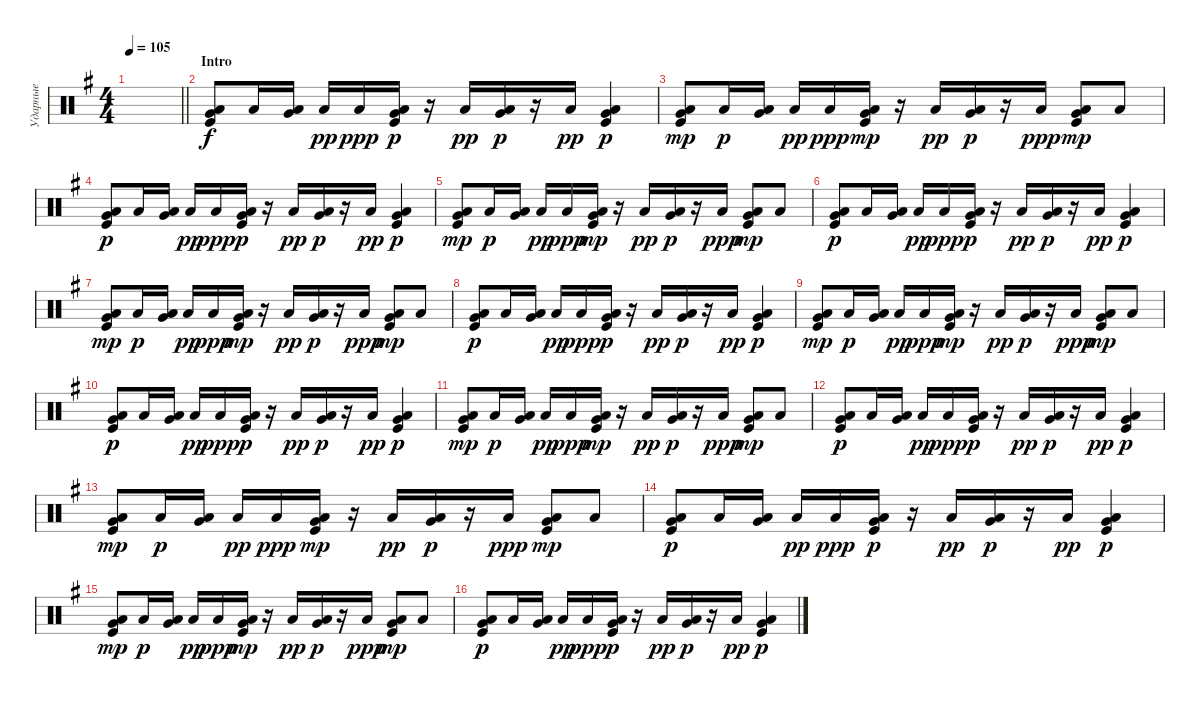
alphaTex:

\track ("Ударные" "Ударные") {instrument percussion}
\staff {score}
\articulation defaults
\ts (4 4)
\tempo 105
\clef neutral
\barLineRight lightlight
\ks eminor
|
\section ("" "Intro")
("Low Floor Tom (hit)" "Very Low Tom (hit)" "Kick (hit)").8{bd 60} "Low Floor Tom (hit)".16 ("Low Floor Tom (hit)" "Very Low Tom (hit)").16{bd 60} "Low Floor Tom (hit)".16{dy pp} "Low Floor Tom (hit)".16{dy ppp} ("Low Floor Tom (hit)" "Very Low Tom (hit)" "Kick (hit)").16{bd 60 dy p} r.16 "Low Floor Tom (hit)".16{dy pp} ("Low Floor Tom (hit)" "Very Low Tom (hit)").16{bd 60 dy p} r.16 "Low Floor Tom (hit)".16{dy pp} ("Low Floor Tom (hit)" "Very Low Tom (hit)" "Kick (hit)").4{bd 60 dy p} |
("Low Floor Tom (hit)" "Very Low Tom (hit)" "Kick (hit)").8{bd 60 dy mp} "Low Floor Tom (hit)".16{dy p} ("Low Floor Tom (hit)" "Very Low Tom (hit)").16{bd 60} "Low Floor Tom (hit)".16{dy pp} "Low Floor Tom (hit)".16{dy ppp} ("Low Floor Tom (hit)" "Very Low Tom (hit)" "Kick (hit)").16{bd 60 dy mp} r.16 "Low Floor Tom (hit)".16{dy pp} ("Low Floor Tom (hit)" "Very Low Tom (hit)").16{bd 60 dy p} r.16 "Low Floor Tom (hit)".16{dy ppp} ("Low Floor Tom (hit)" "Very Low Tom (hit)" "Kick (hit)").8{bd 60 dy mp} "Low Floor Tom (hit)".8 |
("Low Floor Tom (hit)" "Very Low Tom (hit)" "Kick (hit)").8{bd 60 dy p} "Low Floor Tom (hit)".16 ("Low Floor Tom (hit)" "Very Low Tom (hit)").16{bd 60} "Low Floor Tom (hit)".16{dy pp} "Low Floor Tom (hit)".16{dy ppp} ("Low Floor Tom (hit)" "Very Low Tom (hit)" "Kick (hit)").16{bd 60 dy p} r.16 "Low Floor Tom (hit)".16{dy pp} ("Low Floor Tom (hit)" "Very Low Tom (hit)").16{bd 60 dy p} r.16 "Low Floor Tom (hit)".16{dy pp} ("Low Floor Tom (hit)" "Very Low Tom (hit)" "Kick (hit)").4{bd 60 dy p} |
("Low Floor Tom (hit)" "Very Low Tom (hit)" "Kick (hit)").8{bd 60 dy mp} "Low Floor Tom (hit)".16{dy p} ("Low Floor Tom (hit)" "Very Low Tom (hit)").16{bd 60} "Low Floor Tom (hit)".16{dy pp} "Low Floor Tom (hit)".16{dy ppp} ("Low Floor Tom (hit)" "Very Low Tom (hit)" "Kick (hit)").16{bd 60 dy mp} r.16 "Low Floor Tom (hit)".16{dy pp} ("Low Floor Tom (hit)" "Very Low Tom (hit)").16{bd 60 dy p} r.16 "Low Floor Tom (hit)".16{dy ppp} ("Low Floor Tom (hit)" "Very Low Tom (hit)" "Kick (hit)").8{bd 60 dy mp} "Low Floor Tom (hit)".8 |
("Low Floor Tom (hit)" "Very Low Tom (hit)" "Kick (hit)").8{bd 60 dy p} "Low Floor Tom (hit)".16 ("Low Floor Tom (hit)" "Very Low Tom (hit)").16{bd 60} "Low Floor Tom (hit)".16{dy pp} "Low Floor Tom (hit)".16{dy ppp} ("Low Floor Tom (hit)" "Very Low Tom (hit)" "Kick (hit)").16{bd 60 dy p} r.16 "Low Floor Tom (hit)".16{dy pp} ("Low Floor Tom (hit)" "Very Low Tom (hit)").16{bd 60 dy p} r.16 "Low Floor Tom (hit)".16{dy pp} ("Low Floor Tom (hit)" "Very Low Tom (hit)" "Kick (hit)").4{bd 60 dy p} |
("Low Floor Tom (hit)" "Very Low Tom (hit)" "Kick (hit)").8{bd 60 dy mp} "Low Floor Tom (hit)".16{dy p} ("Low Floor Tom (hit)" "Very Low Tom (hit)").16{bd 60} "Low Floor Tom (hit)".16{dy pp} "Low Floor Tom (hit)".16{dy ppp} ("Low Floor Tom (hit)" "Very Low Tom (hit)" "Kick (hit)").16{bd 60 dy mp} r.16 "Low Floor Tom (hit)".16{dy pp} ("Low Floor Tom (hit)" "Very Low Tom (hit)").16{bd 60 dy p} r.16 "Low Floor Tom (hit)".16{dy ppp} ("Low Floor Tom (hit)" "Very Low Tom (hit)" "Kick (hit)").8{bd 60 dy mp} "Low Floor Tom (hit)".8 |
("Low Floor Tom (hit)" "Very Low Tom (hit)" "Kick (hit)").8{bd 60 dy p} "Low Floor Tom (hit)".16 ("Low Floor Tom (hit)" "Very Low Tom (hit)").16{bd 60} "Low Floor Tom (hit)".16{dy pp} "Low Floor Tom (hit)".16{dy ppp} ("Low Floor Tom (hit)" "Very Low Tom (hit)" "Kick (hit)").16{bd 60 dy p} r.16 "Low Floor Tom (hit)".16{dy pp} ("Low Floor Tom (hit)" "Very Low Tom (hit)").16{bd 60 dy p} r.16 "Low Floor Tom (hit)".16{dy pp} ("Low Floor Tom (hit)" "Very Low Tom (hit)" "Kick (hit)").4{bd 60 dy p} |
("Low Floor Tom (hit)" "Very Low Tom (hit)" "Kick (hit)").8{bd 60 dy mp} "Low Floor Tom (hit)".16{dy p} ("Low Floor Tom (hit)" "Very Low Tom (hit)").16{bd 60} "Low Floor Tom (hit)".16{dy pp} "Low Floor Tom (hit)".16{dy ppp} ("Low Floor Tom (hit)" "Very Low Tom (hit)" "Kick (hit)").16{bd 60 dy mp} r.16 "Low Floor Tom (hit)".16{dy pp} ("Low Floor Tom (hit)" "Very Low Tom (hit)").16{bd 60 dy p} r.16 "Low Floor Tom (hit)".16{dy ppp} ("Low Floor Tom (hit)" "Very Low Tom (hit)" "Kick (hit)").8{bd 60 dy mp} "Low Floor Tom (hit)".8 |
("Low Floor Tom (hit)" "Very Low Tom (hit)" "Kick (hit)").8{bd 60 dy p} "Low Floor Tom (hit)".16 ("Low Floor Tom (hit)" "Very Low Tom (hit)").16{bd 60} "Low Floor Tom (hit)".16{dy pp} "Low Floor Tom (hit)".16{dy ppp} ("Low Floor Tom (hit)" "Very Low Tom (hit)" "Kick (hit)").16{bd 60 dy p} r.16 "Low Floor Tom (hit)".16{dy pp} ("Low Floor Tom (hit)" "Very Low Tom (hit)").16{bd 60 dy p} r.16 "Low Floor Tom (hit)".16{dy pp} ("Low Floor Tom (hit)" "Very Low Tom (hit)" "Kick (hit)").4{bd 60 dy p} |
("Low Floor Tom (hit)" "Very Low Tom (hit)" "Kick (hit)").8{bd 60 dy mp} "Low Floor Tom (hit)".16{dy p} ("Low Floor Tom (hit)" "Very Low Tom (hit)").16{bd 60} "Low Floor Tom (hit)".16{dy pp} "Low Floor Tom (hit)".16{dy ppp} ("Low Floor Tom (hit)" "Very Low Tom (hit)" "Kick (hit)").16{bd 60 dy mp} r.16 "Low Floor Tom (hit)".16{dy pp} ("Low Floor Tom (hit)" "Very Low Tom (hit)").16{bd 60 dy p} r.16 "Low Floor Tom (hit)".16{dy ppp} ("Low Floor Tom (hit)" "Very Low Tom (hit)" "Kick (hit)").8{bd 60 dy mp} "Low Floor Tom (hit)".8 |
("Low Floor Tom (hit)" "Very Low Tom (hit)" "Kick (hit)").8{bd 60 dy p} "Low Floor Tom (hit)".16 ("Low Floor Tom (hit)" "Very Low Tom (hit)").16{bd 60} "Low Floor Tom (hit)".16{dy pp} "Low Floor Tom (hit)".16{dy ppp} ("Low Floor Tom (hit)" "Very Low Tom (hit)" "Kick (hit)").16{bd 60 dy p} r.16 "Low Floor Tom (hit)".16{dy pp} ("Low Floor Tom (hit)" "Very Low Tom (hit)").16{bd 60 dy p} r.16 "Low Floor Tom (hit)".16{dy pp} ("Low Floor Tom (hit)" "Very Low Tom (hit)" "Kick (hit)").4{bd 60 dy p} |
("Low Floor Tom (hit)" "Very Low Tom (hit)" "Kick (hit)").8{bd 60 dy mp} "Low Floor Tom (hit)".16{dy p} ("Low Floor Tom (hit)" "Very Low Tom (hit)").16{bd 60} "Low Floor Tom (hit)".16{dy pp} "Low Floor Tom (hit)".16{dy ppp} ("Low Floor Tom (hit)" "Very Low Tom (hit)" "Kick (hit)").16{bd 60 dy mp} r.16 "Low Floor Tom (hit)".16{dy pp} ("Low Floor Tom (hit)" "Very Low Tom (hit)").16{bd 60 dy p} r.16 "Low Floor Tom (hit)".16{dy ppp} ("Low Floor Tom (hit)" "Very Low Tom (hit)" "Kick (hit)").8{bd 60 dy mp} "Low Floor Tom (hit)".8 |
("Low Floor Tom (hit)" "Very Low Tom (hit)" "Kick (hit)").8{bd 60 dy p} "Low Floor Tom (hit)".16 ("Low Floor Tom (hit)" "Very Low Tom (hit)").16{bd 60} "Low Floor Tom (hit)".16{dy pp} "Low Floor Tom (hit)".16{dy ppp} ("Low Floor Tom (hit)" "Very Low Tom (hit)" "Kick (hit)").16{bd 60 dy p} r.16 "Low Floor Tom (hit)".16{dy pp} ("Low Floor Tom (hit)" "Very Low Tom (hit)").16{bd 60 dy p} r.16 "Low Floor Tom (hit)".16{dy pp} ("Low Floor Tom (hit)" "Very Low Tom (hit)" "Kick (hit)").4{bd 60 dy p} |
("Low Floor Tom (hit)" "Very Low Tom (hit)" "Kick (hit)").8{bd 60 dy mp} "Low Floor Tom (hit)".16{dy p} ("Low Floor Tom (hit)" "Very Low Tom (hit)").16{bd 60} "Low Floor Tom (hit)".16{dy pp} "Low Floor Tom (hit)".16{dy ppp} ("Low Floor Tom (hit)" "Very Low Tom (hit)" "Kick (hit)").16{bd 60 dy mp} r.16 "Low Floor Tom (hit)".16{dy pp} ("Low Floor Tom (hit)" "Very Low Tom (hit)").16{bd 60 dy p} r.16 "Low Floor Tom (hit)".16{dy ppp} ("Low Floor Tom (hit)" "Very Low Tom (hit)" "Kick (hit)").8{bd 60 dy mp} "Low Floor Tom (hit)".8 |
("Low Floor Tom (hit)" "Very Low Tom (hit)" "Kick (hit)").8{bd 60 dy p} "Low Floor Tom (hit)".16 ("Low Floor Tom (hit)" "Very Low Tom (hit)").16{bd 60} "Low Floor Tom (hit)".16{dy pp} "Low Floor Tom (hit)".16{dy ppp} ("Low Floor Tom (hit)" "Very Low Tom (hit)" "Kick (hit)").16{bd 60 dy p} r.16 "Low Floor Tom (hit)".16{dy pp} ("Low Floor Tom (hit)" "Very Low Tom (hit)").16{bd 60 dy p} r.16 "Low Floor Tom (hit)".16{dy pp} ("Low Floor Tom (hit)" "Very Low Tom (hit)" "Kick (hit)").4{bd 60 dy p}
